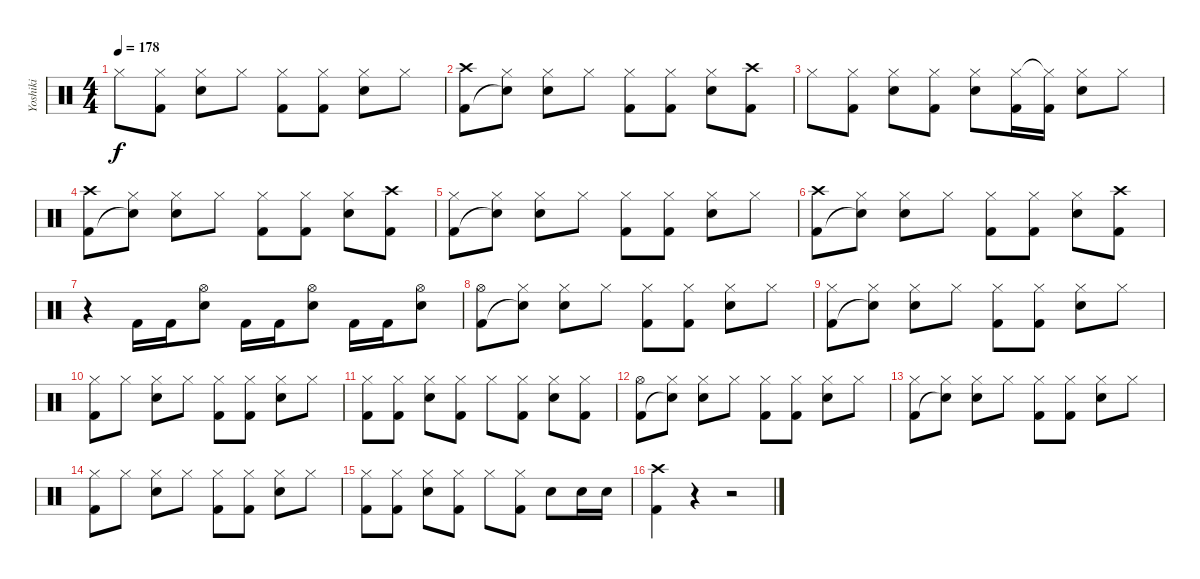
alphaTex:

\track ("Yoshiki" "Yoshiki") {instrument percussion}
\staff {score}
\articulation defaults
\ts (4 4)
\tempo 178
\clef neutral
\ks c "Hi-Hat (closed)".8{dy f}
("Hi-Hat (closed)" "Kick (hit) 2").8 ("Hi-Hat (closed)" "Snare (hit) 2").8 "Hi-Hat (closed)".8 ("Hi-Hat (closed)" "Kick (hit) 2").8 ("Hi-Hat (closed)" "Kick (hit) 2").8 ("Hi-Hat (closed)" "Snare (hit) 2").8 "Hi-Hat (closed)".8 |
("Crash high (hit)" "Kick (hit) 2").8 ("Hi-Hat (closed)" "Snare (hit)"{t}).8 ("Hi-Hat (closed)" "Snare (hit) 2").8 "Hi-Hat (closed)".8 ("Hi-Hat (closed)" "Kick (hit) 2").8 ("Hi-Hat (closed)" "Kick (hit) 2").8 ("Hi-Hat (closed)" "Snare (hit) 2").8 ("Crash high (hit)" "Kick (hit) 2").8 |
"Hi-Hat (closed)".8 ("Hi-Hat (closed)" "Kick (hit) 2").8 ("Hi-Hat (closed)" "Snare (hit) 2").8 ("Hi-Hat (closed)" "Kick (hit) 2").8 ("Hi-Hat (closed)" "Snare (hit) 2").8 ("Hi-Hat (closed)" "Kick (hit) 2").16 ("Hi-Hat (closed)"{t} "Kick (hit) 2").16 ("Hi-Hat (closed)" "Snare (hit) 2").8 "Hi-Hat (closed)".8 |
("Crash high (hit)" "Kick (hit) 2").8 ("Hi-Hat (closed)" "Snare (hit)"{t}).8 ("Hi-Hat (closed)" "Snare (hit) 2").8 "Hi-Hat (closed)".8 ("Hi-Hat (closed)" "Kick (hit) 2").8 ("Hi-Hat (closed)" "Kick (hit) 2").8 ("Hi-Hat (closed)" "Snare (hit) 2").8 ("Crash high (hit)" "Kick (hit) 2").8 |
("Hi-Hat (closed)" "Kick (hit) 2").8 ("Hi-Hat (closed)" "Snare (hit)"{t}).8 ("Hi-Hat (closed)" "Snare (hit) 2").8 "Hi-Hat (closed)".8 ("Hi-Hat (closed)" "Kick (hit) 2").8 ("Hi-Hat (closed)" "Kick (hit) 2").8 ("Hi-Hat (closed)" "Snare (hit) 2").8 "Hi-Hat (closed)".8 |
("Crash high (hit)" "Kick (hit) 2").8 ("Hi-Hat (closed)" "Snare (hit)"{t}).8 ("Hi-Hat (closed)" "Snare (hit) 2").8 "Hi-Hat (closed)".8 ("Hi-Hat (closed)" "Kick (hit) 2").8 ("Hi-Hat (closed)" "Kick (hit) 2").8 ("Hi-Hat (closed)" "Snare (hit) 2").8 ("Crash high (hit)" "Kick (hit) 2").8 |
r.4 "Kick (hit) 2".16 "Kick (hit) 2".16 ("Hi-Hat (open)" "Snare (hit) 2").8 "Kick (hit) 2".16 "Kick (hit) 2".16 ("Hi-Hat (open)" "Snare (hit) 2").8 "Kick (hit) 2".16 "Kick (hit) 2".16 ("Hi-Hat (open)" "Snare (hit) 2").8 |
("Hi-Hat (open)" "Kick (hit) 2").8 ("Hi-Hat (closed)" "Snare (hit)"{t}).8 ("Hi-Hat (closed)" "Snare (hit) 2").8 "Hi-Hat (closed)".8 ("Hi-Hat (closed)" "Kick (hit) 2").8 ("Hi-Hat (closed)" "Kick (hit) 2").8 ("Hi-Hat (closed)" "Snare (hit) 2").8 "Hi-Hat (closed)".8 |
("Hi-Hat (closed)" "Kick (hit) 2").8 ("Hi-Hat (closed)" "Snare (hit)"{t}).8 ("Hi-Hat (closed)" "Snare (hit) 2").8 "Hi-Hat (closed)".8 ("Hi-Hat (closed)" "Kick (hit) 2").8 ("Hi-Hat (closed)" "Kick (hit) 2").8 ("Hi-Hat (closed)" "Snare (hit) 2").8 "Hi-Hat (closed)".8 |
("Hi-Hat (closed)" "Kick (hit) 2").8 "Hi-Hat (closed)".8 ("Hi-Hat (closed)" "Snare (hit) 2").8 "Hi-Hat (closed)".8 ("Hi-Hat (closed)" "Kick (hit) 2").8 ("Hi-Hat (closed)" "Kick (hit) 2").8 ("Hi-Hat (closed)" "Snare (hit) 2").8 "Hi-Hat (closed)".8 |
("Hi-Hat (closed)" "Kick (hit) 2").8 ("Hi-Hat (closed)" "Kick (hit) 2").8 ("Hi-Hat (closed)" "Snare (hit) 2").8 ("Hi-Hat (closed)" "Kick (hit) 2").8 "Hi-Hat (closed)".8 ("Hi-Hat (closed)" "Kick (hit) 2").8 ("Hi-Hat (closed)" "Snare (hit) 2").8 ("Hi-Hat (closed)" "Kick (hit) 2").8 |
("Hi-Hat (open)" "Kick (hit) 2").8 ("Hi-Hat (closed)" "Snare (hit)"{t}).8 ("Hi-Hat (closed)" "Snare (hit) 2").8 "Hi-Hat (closed)".8 ("Hi-Hat (closed)" "Kick (hit) 2").8 ("Hi-Hat (closed)" "Kick (hit) 2").8 ("Hi-Hat (closed)" "Snare (hit) 2").8 "Hi-Hat (closed)".8 |
("Hi-Hat (closed)" "Kick (hit) 2").8 ("Hi-Hat (closed)" "Snare (hit)"{t}).8 ("Hi-Hat (closed)" "Snare (hit) 2").8 "Hi-Hat (closed)".8 ("Hi-Hat (closed)" "Kick (hit) 2").8 ("Hi-Hat (closed)" "Kick (hit) 2").8 ("Hi-Hat (closed)" "Snare (hit) 2").8 "Hi-Hat (closed)".8 |
("Hi-Hat (closed)" "Kick (hit) 2").8 "Hi-Hat (closed)".8 ("Hi-Hat (closed)" "Snare (hit) 2").8 "Hi-Hat (closed)".8 ("Hi-Hat (closed)" "Kick (hit) 2").8 ("Hi-Hat (closed)" "Kick (hit) 2").8 ("Hi-Hat (closed)" "Snare (hit) 2").8 "Hi-Hat (closed)".8 |
("Hi-Hat (closed)" "Kick (hit) 2").8 ("Hi-Hat (closed)" "Kick (hit) 2").8 ("Hi-Hat (closed)" "Snare (hit) 2").8 ("Hi-Hat (closed)" "Kick (hit) 2").8 "Hi-Hat (closed)".8 ("Hi-Hat (closed)" "Kick (hit) 2").8 "Snare (hit) 2".8 "Snare (hit) 2".16 "Snare (hit) 2".16 |
("Crash high (hit)" "Kick (hit) 2").4 r.4 r.2
